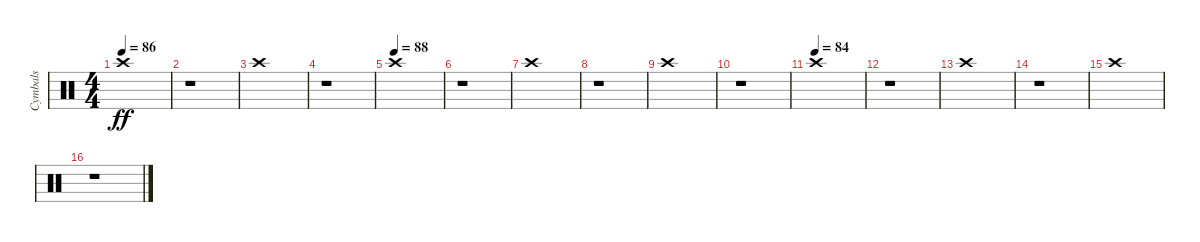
\track ("Cymbals" "Cymbals") {instrument percussion}
\staff {score}
\articulation defaults
\ts (4 4)
\tempo 86
\clef neutral
\ks c "Crash high (hit)".1{dy ff}
|
r.1 |
"Crash high (hit)".1 |
r.1 |
\tempo (88)
"Crash high (hit)".1 |
r.1 |
"Crash high (hit)".1 |
r.1 |
"Crash high (hit)".1 |
r.1 |
\tempo (84)
"Crash high (hit)".1{volume 6} |
r.1 |
"Crash high (hit)".1 |
r.1{volume 0} |
"Crash high (hit)".1 |
r.1
